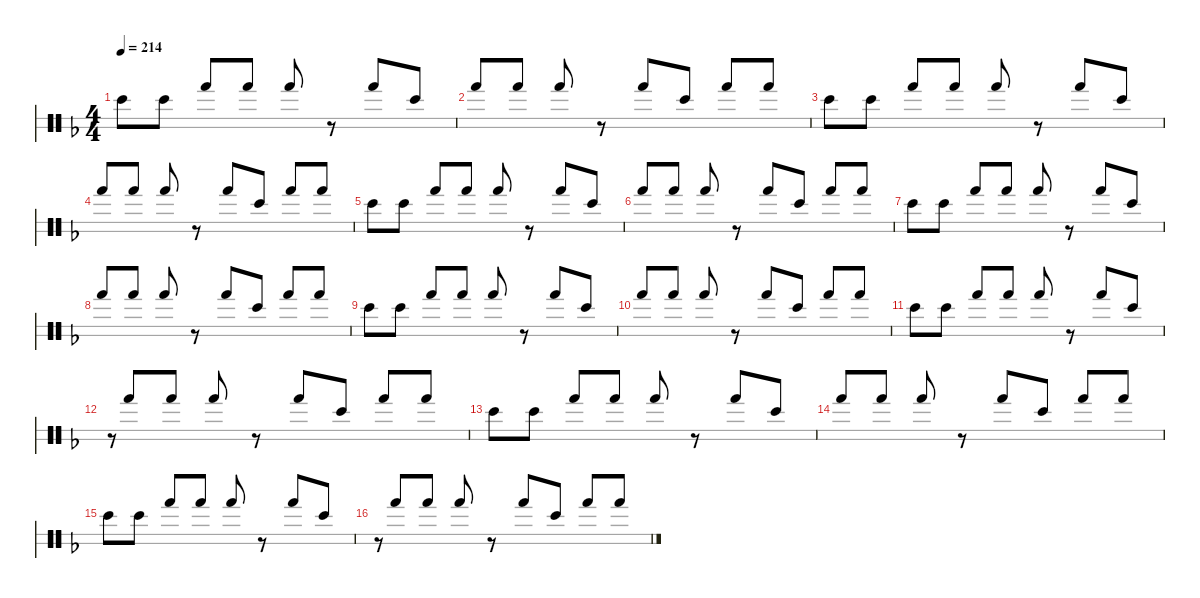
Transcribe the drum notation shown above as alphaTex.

\hideDynamics
\bracketExtendMode nobrackets
\singleTrackTrackNamePolicy hidden
\multiTrackTrackNamePolicy hidden
\firstSystemTrackNameMode fullname
\firstSystemTrackNameOrientation horizontal
\otherSystemsTrackNameOrientation horizontal
\track ("Bongos" "bngKit") {instrument percussion}
\staff {score 2}
\articulation defaults
\ts (4 4)
\tempo 214
\clef neutral
\ks dminor "Bongo High (hit)"{acc forcenatural}.8{dy mp beam Down} "Bongo High (hit)"{acc forcenatural}.8{beam Down} "Hand (hit)"{acc forcenatural}.8{dy p beam Up} "Hand (hit)"{acc forcenatural}.8{beam Up} "Hand (hit)"{acc forcenatural}.8{dy mp beam Up}
r.8{beam Up} "Hand (hit)"{acc forcenatural}.8{beam Up} "Bongo High (hit)"{acc forcenatural}.8{beam Up} |
"Hand (hit)"{acc forcenatural}.8{dy p beam Up} "Hand (hit)"{acc forcenatural}.8{beam Up} "Hand (hit)"{acc forcenatural}.8{dy mp beam Up} r.8{beam Up} "Hand (hit)"{acc forcenatural}.8{beam Up} "Bongo High (hit)"{acc forcenatural}.8{beam Up} "Hand (hit)"{acc forcenatural}.8{dy p beam Up} "Hand (hit)"{acc forcenatural}.8{beam Up} |
"Bongo High (hit)"{acc forcenatural}.8{dy mp beam Down} "Bongo High (hit)"{acc forcenatural}.8{beam Down} "Hand (hit)"{acc forcenatural}.8{dy p beam Up} "Hand (hit)"{acc forcenatural}.8{beam Up} "Hand (hit)"{acc forcenatural}.8{dy mp beam Up} r.8{beam Up} "Hand (hit)"{acc forcenatural}.8{beam Up} "Bongo High (hit)"{acc forcenatural}.8{beam Up} |
"Hand (hit)"{acc forcenatural}.8{dy p beam Up} "Hand (hit)"{acc forcenatural}.8{beam Up} "Hand (hit)"{acc forcenatural}.8{dy mp beam Up} r.8{beam Up} "Hand (hit)"{acc forcenatural}.8{beam Up} "Bongo High (hit)"{acc forcenatural}.8{beam Up} "Hand (hit)"{acc forcenatural}.8{dy p beam Up} "Hand (hit)"{acc forcenatural}.8{beam Up} |
"Bongo High (hit)"{acc forcenatural}.8{dy mp beam Down} "Bongo High (hit)"{acc forcenatural}.8{beam Down} "Hand (hit)"{acc forcenatural}.8{dy p beam Up} "Hand (hit)"{acc forcenatural}.8{beam Up} "Hand (hit)"{acc forcenatural}.8{dy mp beam Up} r.8{beam Up} "Hand (hit)"{acc forcenatural}.8{beam Up} "Bongo High (hit)"{acc forcenatural}.8{beam Up} |
"Hand (hit)"{acc forcenatural}.8{dy p beam Up} "Hand (hit)"{acc forcenatural}.8{beam Up} "Hand (hit)"{acc forcenatural}.8{dy mp beam Up} r.8{beam Up} "Hand (hit)"{acc forcenatural}.8{beam Up} "Bongo High (hit)"{acc forcenatural}.8{beam Up} "Hand (hit)"{acc forcenatural}.8{dy p beam Up} "Hand (hit)"{acc forcenatural}.8{beam Up} |
"Bongo High (hit)"{acc forcenatural}.8{dy mp beam Down} "Bongo High (hit)"{acc forcenatural}.8{beam Down} "Hand (hit)"{acc forcenatural}.8{dy p beam Up} "Hand (hit)"{acc forcenatural}.8{beam Up} "Hand (hit)"{acc forcenatural}.8{dy mp beam Up} r.8{beam Up} "Hand (hit)"{acc forcenatural}.8{beam Up} "Bongo High (hit)"{acc forcenatural}.8{beam Up} |
"Hand (hit)"{acc forcenatural}.8{dy p beam Up} "Hand (hit)"{acc forcenatural}.8{beam Up} "Hand (hit)"{acc forcenatural}.8{dy mp beam Up} r.8{beam Up} "Hand (hit)"{acc forcenatural}.8{beam Up} "Bongo High (hit)"{acc forcenatural}.8{beam Up} "Hand (hit)"{acc forcenatural}.8{dy p beam Up} "Hand (hit)"{acc forcenatural}.8{beam Up} |
"Bongo High (hit)"{acc forcenatural}.8{dy mp beam Down} "Bongo High (hit)"{acc forcenatural}.8{beam Down} "Hand (hit)"{acc forcenatural}.8{dy p beam Up} "Hand (hit)"{acc forcenatural}.8{beam Up} "Hand (hit)"{acc forcenatural}.8{dy mp beam Up} r.8{beam Up} "Hand (hit)"{acc forcenatural}.8{beam Up} "Bongo High (hit)"{acc forcenatural}.8{beam Up} |
"Hand (hit)"{acc forcenatural}.8{dy p beam Up} "Hand (hit)"{acc forcenatural}.8{beam Up} "Hand (hit)"{acc forcenatural}.8{dy mp beam Up} r.8{beam Up} "Hand (hit)"{acc forcenatural}.8{beam Up} "Bongo High (hit)"{acc forcenatural}.8{beam Up} "Hand (hit)"{acc forcenatural}.8{dy p beam Up} "Hand (hit)"{acc forcenatural}.8{beam Up} |
"Bongo High (hit)"{acc forcenatural}.8{dy mp beam Down} "Bongo High (hit)"{acc forcenatural}.8{beam Down} "Hand (hit)"{acc forcenatural}.8{dy p beam Up} "Hand (hit)"{acc forcenatural}.8{beam Up} "Hand (hit)"{acc forcenatural}.8{dy mp beam Up} r.8{beam Up} "Hand (hit)"{acc forcenatural}.8{beam Up} "Bongo High (hit)"{acc forcenatural}.8{beam Up} |
r.8{gr beam Up} "Hand (hit)"{acc forcenatural}.8{dy p beam Up} "Hand (hit)"{acc forcenatural}.8{beam Up} "Hand (hit)"{acc forcenatural}.8{dy mp beam Up} r.8{beam Up} "Hand (hit)"{acc forcenatural}.8{beam Up} "Bongo High (hit)"{acc forcenatural}.8{beam Up} "Hand (hit)"{acc forcenatural}.8{dy p beam Up} "Hand (hit)"{acc forcenatural}.8{beam Up} |
"Bongo High (hit)"{acc forcenatural}.8{dy mp beam Down} "Bongo High (hit)"{acc forcenatural}.8{beam Down} "Hand (hit)"{acc forcenatural}.8{dy p beam Up} "Hand (hit)"{acc forcenatural}.8{beam Up} "Hand (hit)"{acc forcenatural}.8{dy mp beam Up} r.8{beam Up} "Hand (hit)"{acc forcenatural}.8{beam Up} "Bongo High (hit)"{acc forcenatural}.8{beam Up} |
"Hand (hit)"{acc forcenatural}.8{dy p beam Up} "Hand (hit)"{acc forcenatural}.8{beam Up} "Hand (hit)"{acc forcenatural}.8{dy mp beam Up} r.8{beam Up} "Hand (hit)"{acc forcenatural}.8{beam Up} "Bongo High (hit)"{acc forcenatural}.8{beam Up} "Hand (hit)"{acc forcenatural}.8{dy p beam Up} "Hand (hit)"{acc forcenatural}.8{beam Up} |
"Bongo High (hit)"{acc forcenatural}.8{dy mp beam Down} "Bongo High (hit)"{acc forcenatural}.8{beam Down} "Hand (hit)"{acc forcenatural}.8{dy p beam Up} "Hand (hit)"{acc forcenatural}.8{beam Up} "Hand (hit)"{acc forcenatural}.8{dy mp beam Up} r.8{beam Up} "Hand (hit)"{acc forcenatural}.8{beam Up} "Bongo High (hit)"{acc forcenatural}.8{beam Up} |
r.8{gr beam Up} "Hand (hit)"{acc forcenatural}.8{dy p beam Up} "Hand (hit)"{acc forcenatural}.8{beam Up} "Hand (hit)"{acc forcenatural}.8{dy mp beam Up} r.8{beam Up} "Hand (hit)"{acc forcenatural}.8{beam Up} "Bongo High (hit)"{acc forcenatural}.8{beam Up} "Hand (hit)"{acc forcenatural}.8{dy p beam Up} "Hand (hit)"{acc forcenatural}.8{beam Up}
